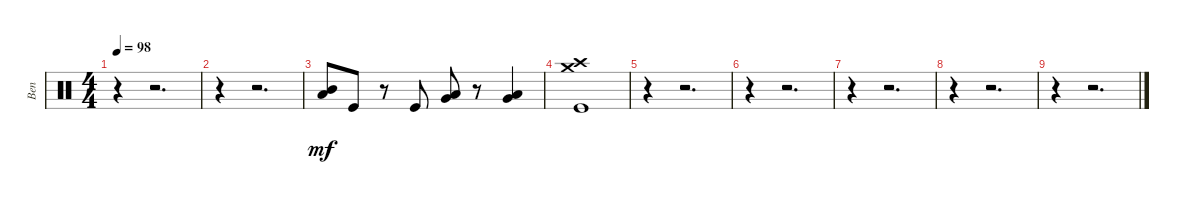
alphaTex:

\track ("Ben" "Ben") {instrument percussion}
\staff {score}
\articulation defaults
\ts (4 4)
\tempo 98
\clef neutral
\ks c
r.4{dy mf} r.2{d} |
r.4 r.2{d} |
("Mid Tom (hit)" "Low Tom (hit)").8 "Kick (hit)".8 r.8 "Kick (hit)".8 ("Very Low Tom (hit)" "Low Tom (hit)").8 r.8 ("Very Low Tom (hit)" "Low Floor Tom (hit)").4 |
("Kick (hit)" "Crash high (hit)" "Crash medium (hit)").1 |
r.4 r.2{d} |
r.4 r.2{d} |
r.4 r.2{d} |
r.4 r.2{d} |
r.4 r.2{d}
